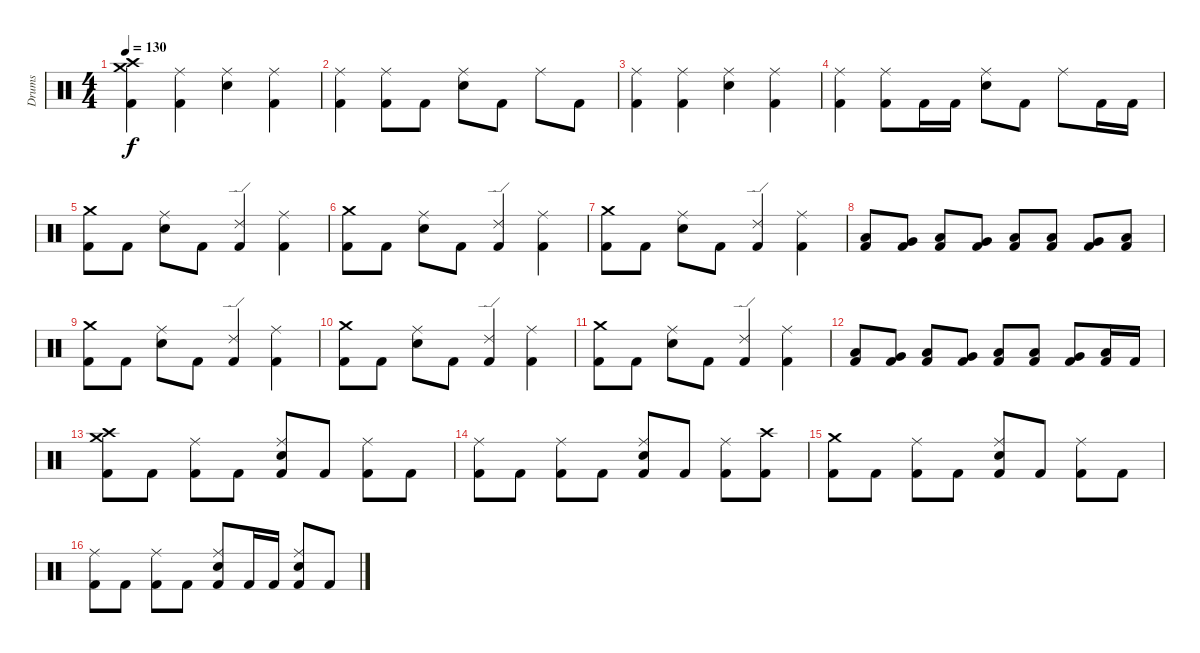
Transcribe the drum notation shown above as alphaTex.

\track ("Drums" "Drums") {instrument percussion}
\staff {score}
\articulation defaults
\ts (4 4)
\tempo 130
\clef neutral
\ks c
("Crash medium (hit)" "Crash high (hit)" "Kick (hit) 2").4{dy f} ("Ride (middle)" "Kick (hit) 2").4 ("Ride (middle)" "Electric Snare (hit)").4 ("Ride (middle)" "Kick (hit) 2").4 |
("Ride (middle)" "Kick (hit) 2").4 ("Ride (middle)" "Kick (hit) 2").8 "Kick (hit) 2".8 ("Ride (middle)" "Electric Snare (hit)").8 "Kick (hit) 2".8 "Ride (middle)".8 "Kick (hit) 2".8 |
("Ride (middle)" "Kick (hit) 2").4 ("Ride (middle)" "Kick (hit) 2").4 ("Ride (middle)" "Electric Snare (hit)").4 ("Ride (middle)" "Kick (hit) 2").4 |
("Ride (middle)" "Kick (hit) 2").4 ("Ride (middle)" "Kick (hit) 2").8 "Kick (hit) 2".16 "Kick (hit) 2".16 ("Ride (middle)" "Electric Snare (hit)").8 "Kick (hit) 2".8 "Ride (middle)".8 "Kick (hit) 2".16 "Kick (hit) 2".16 |
("Crash medium (hit)" "Kick (hit) 2").8 "Kick (hit) 2".8 ("Ride (middle)" "Electric Snare (hit)").8 "Kick (hit) 2".8 ("Ride (edge) 2" "Kick (hit) 2").4 ("Ride (middle)" "Kick (hit) 2").4 |
("Crash medium (hit)" "Kick (hit) 2").8 "Kick (hit) 2".8 ("Ride (middle)" "Electric Snare (hit)").8 "Kick (hit) 2".8 ("Ride (edge) 2" "Kick (hit) 2").4 ("Ride (middle)" "Kick (hit) 2").4 |
("Crash medium (hit)" "Kick (hit) 2").8 "Kick (hit) 2".8 ("Ride (middle)" "Electric Snare (hit)").8 "Kick (hit) 2".8 ("Ride (edge) 2" "Kick (hit) 2").4 ("Ride (middle)" "Kick (hit) 2").4 |
("Low Tom (hit)" "Kick (hit) 2").8 ("Very Low Tom (hit)" "Kick (hit) 2").8 ("Low Floor Tom (hit)" "Kick (hit) 2").8 ("Very Low Tom (hit)" "Kick (hit) 2").8 ("Low Floor Tom (hit)" "Kick (hit) 2").8 ("Low Tom (hit)" "Kick (hit) 2").8 ("Very Low Tom (hit)" "Kick (hit) 2").8 ("Low Floor Tom (hit)" "Kick (hit) 2").8 |
("Crash medium (hit)" "Kick (hit) 2").8 "Kick (hit) 2".8 ("Ride (middle)" "Electric Snare (hit)").8 "Kick (hit) 2".8 ("Ride (edge) 2" "Kick (hit) 2").4 ("Ride (middle)" "Kick (hit) 2").4 |
("Crash medium (hit)" "Kick (hit) 2").8 "Kick (hit) 2".8 ("Ride (middle)" "Electric Snare (hit)").8 "Kick (hit) 2".8 ("Ride (edge) 2" "Kick (hit) 2").4 ("Ride (middle)" "Kick (hit) 2").4 |
("Crash medium (hit)" "Kick (hit) 2").8 "Kick (hit) 2".8 ("Ride (middle)" "Electric Snare (hit)").8 "Kick (hit) 2".8 ("Ride (edge) 2" "Kick (hit) 2").4 ("Ride (middle)" "Kick (hit) 2").4 |
("Low Tom (hit)" "Kick (hit) 2").8 ("Very Low Tom (hit)" "Kick (hit) 2").8 ("Low Floor Tom (hit)" "Kick (hit) 2").8 ("Very Low Tom (hit)" "Kick (hit) 2").8 ("Low Floor Tom (hit)" "Kick (hit) 2").8 ("Low Tom (hit)" "Kick (hit) 2").8 ("Very Low Tom (hit)" "Kick (hit) 2").8 ("Low Floor Tom (hit)" "Kick (hit) 2").16 "Kick (hit) 2".16 |
("Crash medium (hit)" "Crash high (hit)" "Kick (hit) 2").8 "Kick (hit) 2".8 ("Ride (middle)" "Kick (hit) 2").8 "Kick (hit) 2".8 ("Ride (middle)" "Electric Snare (hit)" "Kick (hit) 2").8 "Kick (hit) 2".8 ("Ride (middle)" "Kick (hit) 2").8 "Kick (hit) 2".8 |
("Ride (middle)" "Kick (hit) 2").8 "Kick (hit) 2".8 ("Ride (middle)" "Kick (hit) 2").8 "Kick (hit) 2".8 ("Ride (middle)" "Electric Snare (hit)" "Kick (hit) 2").8 "Kick (hit) 2".8 ("Ride (middle)" "Kick (hit) 2").8 ("Crash high (hit)" "Kick (hit) 2").8 |
("Crash medium (hit)" "Kick (hit) 2").8 "Kick (hit) 2".8 ("Ride (middle)" "Kick (hit) 2").8 "Kick (hit) 2".8 ("Ride (middle)" "Electric Snare (hit)" "Kick (hit) 2").8 "Kick (hit) 2".8 ("Ride (middle)" "Kick (hit) 2").8 "Kick (hit) 2".8 |
("Ride (middle)" "Kick (hit) 2").8 "Kick (hit) 2".8 ("Ride (middle)" "Kick (hit) 2").8 "Kick (hit) 2".8 ("Ride (middle)" "Electric Snare (hit)" "Kick (hit) 2").8 "Kick (hit) 2".16 "Kick (hit) 2".16 ("Ride (middle)" "Electric Snare (hit)" "Kick (hit) 2").8 "Kick (hit) 2".8
